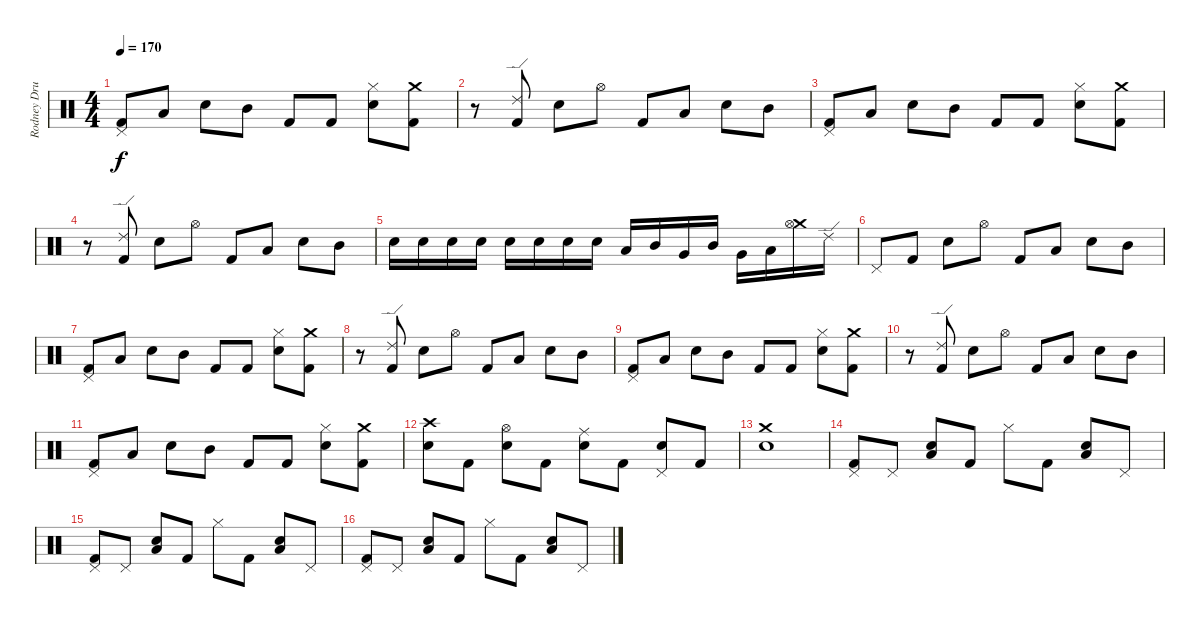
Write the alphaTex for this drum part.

\track ("Rodney Drums" "Rodney Dru") {instrument percussion}
\staff {score}
\articulation defaults
\ts (4 4)
\tempo 170
\clef neutral
\ks c
("Pedal Hi-Hat (hit)" "Kick (hit) 2").8{dy f} "Low Tom (hit)".8 "Electric Snare (hit)".8 "Mid Tom (hit)".8 "Kick (hit) 2".8 "Kick (hit) 2".8 ("Hi-Hat (closed)" "Electric Snare (hit)").8 ("Crash medium (hit)" "Kick (hit) 2").8 |
r.8 ("Ride (edge) 2" "Kick (hit) 2").8 "Electric Snare (hit)".8 "Hi-Hat (open)".8 "Kick (hit) 2".8 "Low Tom (hit)".8 "Electric Snare (hit)".8 "Mid Tom (hit)".8 |
("Pedal Hi-Hat (hit)" "Kick (hit) 2").8 "Low Tom (hit)".8 "Electric Snare (hit)".8 "Mid Tom (hit)".8 "Kick (hit) 2".8 "Kick (hit) 2".8 ("Hi-Hat (closed)" "Electric Snare (hit)").8 ("Crash medium (hit)" "Kick (hit) 2").8 |
r.8 ("Ride (edge) 2" "Kick (hit) 2").8 "Electric Snare (hit)".8 "Hi-Hat (open)".8 "Kick (hit) 2".8 "Low Tom (hit)".8 "Electric Snare (hit)".8 "Mid Tom (hit)".8 |
"Electric Snare (hit)".16 "Electric Snare (hit)".16 "Electric Snare (hit)".16 "Electric Snare (hit)".16 "Electric Snare (hit)".16 "Electric Snare (hit)".16 "Electric Snare (hit)".16 "Electric Snare (hit)".16 "Low Tom (hit)".16 "Mid Tom (hit)".16 "Very Low Tom (hit)".16 "Mid Tom (hit)".16 "Very Low Tom (hit)".16 "Low Tom (hit)".16 ("Crash medium (hit)" "Hi-Hat (open)").16 "Ride (edge) 2".16 |
"Pedal Hi-Hat (hit)".8 "Kick (hit) 2".8 "Electric Snare (hit)".8 "Hi-Hat (open)".8 "Kick (hit) 2".8 "Low Tom (hit)".8 "Electric Snare (hit)".8 "Mid Tom (hit)".8 |
("Pedal Hi-Hat (hit)" "Kick (hit) 2").8 "Low Tom (hit)".8 "Electric Snare (hit)".8 "Mid Tom (hit)".8 "Kick (hit) 2".8 "Kick (hit) 2".8 ("Hi-Hat (closed)" "Electric Snare (hit)").8 ("Crash medium (hit)" "Kick (hit) 2").8 |
r.8 ("Ride (edge) 2" "Kick (hit) 2").8 "Electric Snare (hit)".8 "Hi-Hat (open)".8 "Kick (hit) 2".8 "Low Tom (hit)".8 "Electric Snare (hit)".8 "Mid Tom (hit)".8 |
("Pedal Hi-Hat (hit)" "Kick (hit) 2").8 "Low Tom (hit)".8 "Electric Snare (hit)".8 "Mid Tom (hit)".8 "Kick (hit) 2".8 "Kick (hit) 2".8 ("Hi-Hat (closed)" "Electric Snare (hit)").8 ("Crash medium (hit)" "Kick (hit) 2").8 |
r.8 ("Ride (edge) 2" "Kick (hit) 2").8 "Electric Snare (hit)".8 "Hi-Hat (open)".8 "Kick (hit) 2".8 "Low Tom (hit)".8 "Electric Snare (hit)".8 "Mid Tom (hit)".8 |
("Pedal Hi-Hat (hit)" "Kick (hit) 2").8 "Low Tom (hit)".8 "Electric Snare (hit)".8 "Mid Tom (hit)".8 "Kick (hit) 2".8 "Kick (hit) 2".8 ("Hi-Hat (closed)" "Electric Snare (hit)").8 ("Crash medium (hit)" "Kick (hit) 2").8 |
("Crash high (hit)" "Electric Snare (hit)").8 "Kick (hit) 2".8 ("Hi-Hat (open)" "Electric Snare (hit)").8 "Kick (hit) 2".8 ("Ride (middle)" "Electric Snare (hit)").8 "Kick (hit) 2".8 ("Pedal Hi-Hat (hit)" "Electric Snare (hit)").8 "Kick (hit) 2".8 |
("Crash medium (hit)" "Electric Snare (hit)").1 |
("Pedal Hi-Hat (hit)" "Kick (hit) 2").8 "Pedal Hi-Hat (hit)".8 ("Electric Snare (hit)" "Low Tom (hit)").8 "Kick (hit) 2".8 "Hi-Hat (closed)".8 "Kick (hit) 2".8 ("Electric Snare (hit)" "Low Tom (hit)").8 "Pedal Hi-Hat (hit)".8 |
("Pedal Hi-Hat (hit)" "Kick (hit) 2").8 "Pedal Hi-Hat (hit)".8 ("Electric Snare (hit)" "Low Tom (hit)").8 "Kick (hit) 2".8 "Hi-Hat (closed)".8 "Kick (hit) 2".8 ("Electric Snare (hit)" "Low Tom (hit)").8 "Pedal Hi-Hat (hit)".8 |
("Pedal Hi-Hat (hit)" "Kick (hit) 2").8 "Pedal Hi-Hat (hit)".8 ("Electric Snare (hit)" "Low Tom (hit)").8 "Kick (hit) 2".8 "Hi-Hat (closed)".8 "Kick (hit) 2".8 ("Electric Snare (hit)" "Low Tom (hit)").8 "Pedal Hi-Hat (hit)".8
